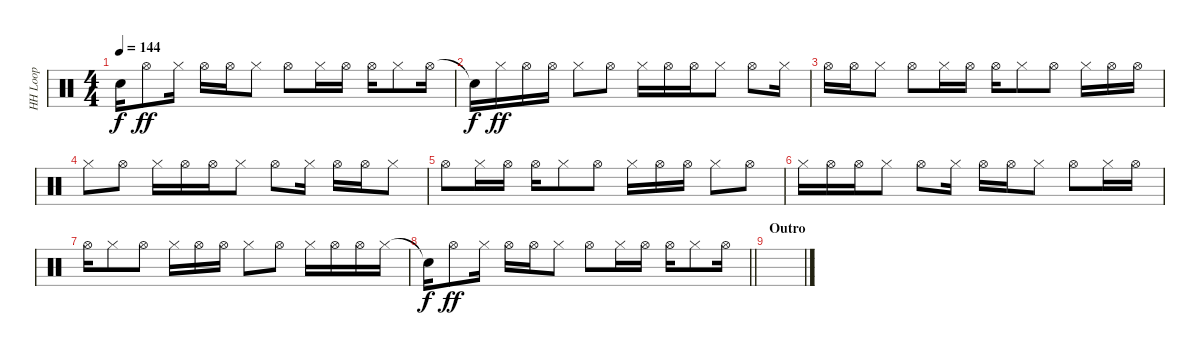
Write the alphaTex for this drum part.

\track ("HH Loop" "HH Loop") {instrument percussion}
\staff {score}
\articulation defaults
\ts (4 4)
\tempo 144
\clef neutral
\ks c "Snare (hit)"{t}.16{dy f} "Hi-Hat (open)".8{dy ff} "Hi-Hat (closed)".16 "Hi-Hat (open)".16 "Hi-Hat (open)".16 "Hi-Hat (closed)".8 "Hi-Hat (open)".8 "Hi-Hat (closed)".16 "Hi-Hat (open)".16 "Hi-Hat (open)".16 "Hi-Hat (closed)".8 "Hi-Hat (open)".16
|
"Snare (hit)"{t}.16{dy f} "Hi-Hat (closed)".16{dy ff} "Hi-Hat (open)".16 "Hi-Hat (open)".16 "Hi-Hat (closed)".8 "Hi-Hat (open)".8 "Hi-Hat (closed)".16 "Hi-Hat (open)".16 "Hi-Hat (open)".16 "Hi-Hat (closed)".8 "Hi-Hat (open)".8 "Hi-Hat (closed)".16 |
"Hi-Hat (open)".16 "Hi-Hat (open)".16 "Hi-Hat (closed)".8 "Hi-Hat (open)".8 "Hi-Hat (closed)".16 "Hi-Hat (open)".16 "Hi-Hat (open)".16 "Hi-Hat (closed)".8 "Hi-Hat (open)".8 "Hi-Hat (closed)".16 "Hi-Hat (open)".16 "Hi-Hat (open)".16 |
"Hi-Hat (closed)".8 "Hi-Hat (open)".8 "Hi-Hat (closed)".16 "Hi-Hat (open)".16 "Hi-Hat (open)".16 "Hi-Hat (closed)".8 "Hi-Hat (open)".8 "Hi-Hat (closed)".16 "Hi-Hat (open)".16 "Hi-Hat (open)".16 "Hi-Hat (closed)".8 |
"Hi-Hat (open)".8 "Hi-Hat (closed)".16 "Hi-Hat (open)".16 "Hi-Hat (open)".16 "Hi-Hat (closed)".8 "Hi-Hat (open)".8 "Hi-Hat (closed)".16 "Hi-Hat (open)".16 "Hi-Hat (open)".16 "Hi-Hat (closed)".8 "Hi-Hat (open)".8 |
"Hi-Hat (closed)".16 "Hi-Hat (open)".16 "Hi-Hat (open)".16 "Hi-Hat (closed)".8 "Hi-Hat (open)".8 "Hi-Hat (closed)".16 "Hi-Hat (open)".16 "Hi-Hat (open)".16 "Hi-Hat (closed)".8 "Hi-Hat (open)".8 "Hi-Hat (closed)".16 "Hi-Hat (open)".16 |
"Hi-Hat (open)".16 "Hi-Hat (closed)".8 "Hi-Hat (open)".8 "Hi-Hat (closed)".16 "Hi-Hat (open)".16 "Hi-Hat (open)".16 "Hi-Hat (closed)".8 "Hi-Hat (open)".8 "Hi-Hat (closed)".16 "Hi-Hat (open)".16 "Hi-Hat (open)".16 "Hi-Hat (closed)".16 |
\barLineRight lightlight "Snare (hit)"{t}.16{dy f} "Hi-Hat (open)".8{dy ff} "Hi-Hat (closed)".16 "Hi-Hat (open)".16 "Hi-Hat (open)".16 "Hi-Hat (closed)".8 "Hi-Hat (open)".8 "Hi-Hat (closed)".16 "Hi-Hat (open)".16 "Hi-Hat (open)".16 "Hi-Hat (closed)".8 "Hi-Hat (open)".16
|
\section ("" "Outro")
